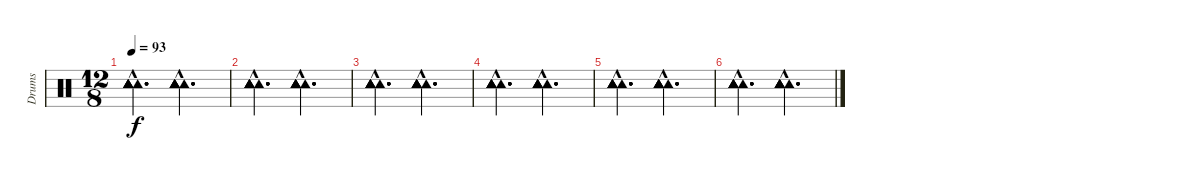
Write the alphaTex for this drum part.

\track ("Drums" "Drums") {instrument percussion}
\staff {score}
\articulation defaults
\ts (12 8)
\tempo 93
\clef neutral
\ks c
("Tambourine (hit)"{hac} "Tambourine (hit)"{hac} "Tambourine (hit)"{hac} "Tambourine (hit)"{hac} "Tambourine (hit)"{hac} "Tambourine (hit)"{hac}).2{d dy f} ("Tambourine (hit)"{hac} "Tambourine (hit)"{hac} "Tambourine (hit)"{hac} "Tambourine (hit)"{hac} "Tambourine (hit)"{hac} "Tambourine (hit)"{hac}).2{d} |
("Tambourine (hit)"{hac} "Tambourine (hit)"{hac} "Tambourine (hit)"{hac} "Tambourine (hit)"{hac} "Tambourine (hit)"{hac} "Tambourine (hit)"{hac}).2{d} ("Tambourine (hit)"{hac} "Tambourine (hit)"{hac} "Tambourine (hit)"{hac} "Tambourine (hit)"{hac} "Tambourine (hit)"{hac} "Tambourine (hit)"{hac}).2{d} |
("Tambourine (hit)"{hac} "Tambourine (hit)"{hac} "Tambourine (hit)"{hac} "Tambourine (hit)"{hac} "Tambourine (hit)"{hac} "Tambourine (hit)"{hac}).2{d} ("Tambourine (hit)"{hac} "Tambourine (hit)"{hac} "Tambourine (hit)"{hac} "Tambourine (hit)"{hac} "Tambourine (hit)"{hac} "Tambourine (hit)"{hac}).2{d} |
("Tambourine (hit)"{hac} "Tambourine (hit)"{hac} "Tambourine (hit)"{hac} "Tambourine (hit)"{hac} "Tambourine (hit)"{hac} "Tambourine (hit)"{hac}).2{d} ("Tambourine (hit)"{hac} "Tambourine (hit)"{hac} "Tambourine (hit)"{hac} "Tambourine (hit)"{hac} "Tambourine (hit)"{hac} "Tambourine (hit)"{hac}).2{d} |
("Tambourine (hit)"{hac} "Tambourine (hit)"{hac} "Tambourine (hit)"{hac} "Tambourine (hit)"{hac} "Tambourine (hit)"{hac} "Tambourine (hit)"{hac}).2{d} ("Tambourine (hit)"{hac} "Tambourine (hit)"{hac} "Tambourine (hit)"{hac} "Tambourine (hit)"{hac} "Tambourine (hit)"{hac} "Tambourine (hit)"{hac}).2{d} |
("Tambourine (hit)"{hac} "Tambourine (hit)"{hac} "Tambourine (hit)"{hac} "Tambourine (hit)"{hac} "Tambourine (hit)"{hac} "Tambourine (hit)"{hac}).2{d} ("Tambourine (hit)"{hac} "Tambourine (hit)"{hac} "Tambourine (hit)"{hac} "Tambourine (hit)"{hac} "Tambourine (hit)"{hac} "Tambourine (hit)"{hac}).2{d}
